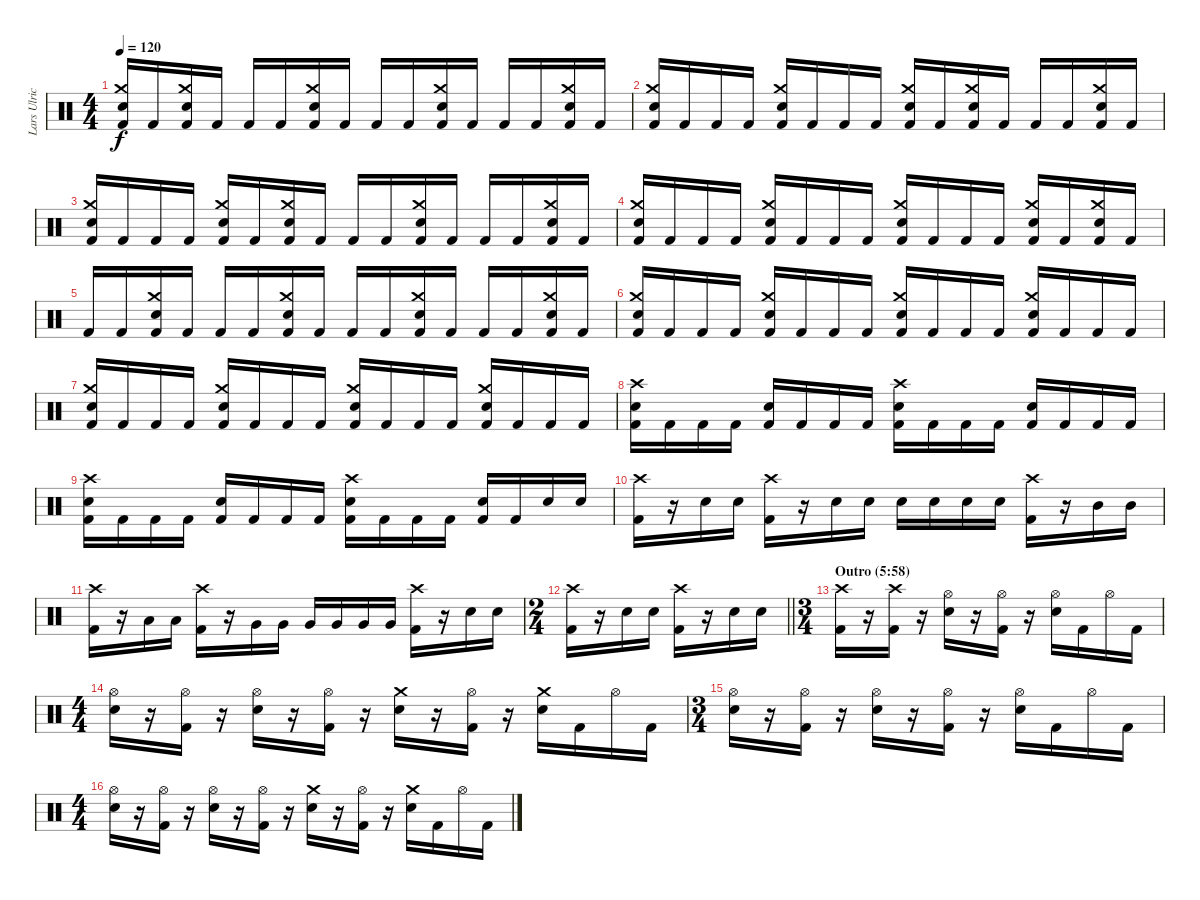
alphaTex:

\track ("Lars Ulrich" "Lars Ulric") {instrument percussion}
\staff {score}
\articulation defaults
\ts (4 4)
\tempo 120
\clef neutral
\ks c
("Electric Snare (hit)" "Crash medium (hit)" "Kick (hit) 2").16{dy f} "Kick (hit) 2".16 ("Electric Snare (hit)" "Crash medium (hit)" "Kick (hit) 2").16 "Kick (hit) 2".16 "Kick (hit) 2".16 "Kick (hit) 2".16 ("Electric Snare (hit)" "Crash medium (hit)" "Kick (hit) 2").16 "Kick (hit) 2".16 "Kick (hit) 2".16 "Kick (hit) 2".16 ("Electric Snare (hit)" "Crash medium (hit)" "Kick (hit) 2").16 "Kick (hit) 2".16 "Kick (hit) 2".16 "Kick (hit) 2".16 ("Electric Snare (hit)" "Crash medium (hit)" "Kick (hit) 2").16 "Kick (hit) 2".16 |
("Electric Snare (hit)" "Crash medium (hit)" "Kick (hit) 2").16 "Kick (hit) 2".16 "Kick (hit) 2".16 "Kick (hit) 2".16 ("Electric Snare (hit)" "Crash medium (hit)" "Kick (hit) 2").16 "Kick (hit) 2".16 "Kick (hit) 2".16 "Kick (hit) 2".16 ("Electric Snare (hit)" "Crash medium (hit)" "Kick (hit) 2").16 "Kick (hit) 2".16 ("Electric Snare (hit)" "Crash medium (hit)" "Kick (hit) 2").16 "Kick (hit) 2".16 "Kick (hit) 2".16 "Kick (hit) 2".16 ("Electric Snare (hit)" "Crash medium (hit)" "Kick (hit) 2").16 "Kick (hit) 2".16 |
("Electric Snare (hit)" "Crash medium (hit)" "Kick (hit) 2").16 "Kick (hit) 2".16 "Kick (hit) 2".16 "Kick (hit) 2".16 ("Electric Snare (hit)" "Crash medium (hit)" "Kick (hit) 2").16 "Kick (hit) 2".16 ("Electric Snare (hit)" "Crash medium (hit)" "Kick (hit) 2").16 "Kick (hit) 2".16 "Kick (hit) 2".16 "Kick (hit) 2".16 ("Electric Snare (hit)" "Crash medium (hit)" "Kick (hit) 2").16 "Kick (hit) 2".16 "Kick (hit) 2".16 "Kick (hit) 2".16 ("Electric Snare (hit)" "Crash medium (hit)" "Kick (hit) 2").16 "Kick (hit) 2".16 |
("Electric Snare (hit)" "Crash medium (hit)" "Kick (hit) 2").16 "Kick (hit) 2".16 "Kick (hit) 2".16 "Kick (hit) 2".16 ("Electric Snare (hit)" "Crash medium (hit)" "Kick (hit) 2").16 "Kick (hit) 2".16 "Kick (hit) 2".16 "Kick (hit) 2".16 ("Electric Snare (hit)" "Crash medium (hit)" "Kick (hit) 2").16 "Kick (hit) 2".16 "Kick (hit) 2".16 "Kick (hit) 2".16 ("Electric Snare (hit)" "Crash medium (hit)" "Kick (hit) 2").16 "Kick (hit) 2".16 ("Electric Snare (hit)" "Crash medium (hit)" "Kick (hit) 2").16 "Kick (hit) 2".16 |
"Kick (hit) 2".16 "Kick (hit) 2".16 ("Electric Snare (hit)" "Crash medium (hit)" "Kick (hit) 2").16 "Kick (hit) 2".16 "Kick (hit) 2".16 "Kick (hit) 2".16 ("Electric Snare (hit)" "Crash medium (hit)" "Kick (hit) 2").16 "Kick (hit) 2".16 "Kick (hit) 2".16 "Kick (hit) 2".16 ("Electric Snare (hit)" "Crash medium (hit)" "Kick (hit) 2").16 "Kick (hit) 2".16 "Kick (hit) 2".16 "Kick (hit) 2".16 ("Electric Snare (hit)" "Crash medium (hit)" "Kick (hit) 2").16 "Kick (hit) 2".16 |
("Electric Snare (hit)" "Crash medium (hit)" "Kick (hit) 2").16 "Kick (hit) 2".16 "Kick (hit) 2".16 "Kick (hit) 2".16 ("Electric Snare (hit)" "Crash medium (hit)" "Kick (hit) 2").16 "Kick (hit) 2".16 "Kick (hit) 2".16 "Kick (hit) 2".16 ("Electric Snare (hit)" "Crash medium (hit)" "Kick (hit) 2").16 "Kick (hit) 2".16 "Kick (hit) 2".16 "Kick (hit) 2".16 ("Electric Snare (hit)" "Crash medium (hit)" "Kick (hit) 2").16 "Kick (hit) 2".16 "Kick (hit) 2".16 "Kick (hit) 2".16 |
("Electric Snare (hit)" "Crash medium (hit)" "Kick (hit) 2").16 "Kick (hit) 2".16 "Kick (hit) 2".16 "Kick (hit) 2".16 ("Electric Snare (hit)" "Crash medium (hit)" "Kick (hit) 2").16 "Kick (hit) 2".16 "Kick (hit) 2".16 "Kick (hit) 2".16 ("Electric Snare (hit)" "Crash medium (hit)" "Kick (hit) 2").16 "Kick (hit) 2".16 "Kick (hit) 2".16 "Kick (hit) 2".16 ("Electric Snare (hit)" "Crash medium (hit)" "Kick (hit) 2").16 "Kick (hit) 2".16 "Kick (hit) 2".16 "Kick (hit) 2".16 |
("Crash high (hit)" "Electric Snare (hit)" "Kick (hit) 2").16 "Kick (hit) 2".16 "Kick (hit) 2".16 "Kick (hit) 2".16 ("Electric Snare (hit)" "Kick (hit) 2").16 "Kick (hit) 2".16 "Kick (hit) 2".16 "Kick (hit) 2".16 ("Crash high (hit)" "Electric Snare (hit)" "Kick (hit) 2").16 "Kick (hit) 2".16 "Kick (hit) 2".16 "Kick (hit) 2".16 ("Electric Snare (hit)" "Kick (hit) 2").16 "Kick (hit) 2".16 "Kick (hit) 2".16 "Kick (hit) 2".16 |
("Crash high (hit)" "Electric Snare (hit)" "Kick (hit) 2").16 "Kick (hit) 2".16 "Kick (hit) 2".16 "Kick (hit) 2".16 ("Electric Snare (hit)" "Kick (hit) 2").16 "Kick (hit) 2".16 "Kick (hit) 2".16 "Kick (hit) 2".16 ("Crash high (hit)" "Electric Snare (hit)" "Kick (hit) 2").16 "Kick (hit) 2".16 "Kick (hit) 2".16 "Kick (hit) 2".16 ("Electric Snare (hit)" "Kick (hit) 2").16 "Kick (hit) 2".16 "Electric Snare (hit)".16 "Electric Snare (hit)".16 |
("Crash high (hit)" "Kick (hit) 2").16 r.16 "Electric Snare (hit)".16 "Electric Snare (hit)".16 ("Crash high (hit)" "Kick (hit) 2").16 r.16 "Electric Snare (hit)".16 "Electric Snare (hit)".16 "Electric Snare (hit)".16 "Electric Snare (hit)".16 "Electric Snare (hit)".16 "Electric Snare (hit)".16 ("Crash high (hit)" "Kick (hit) 2").16 r.16 "Mid Tom (hit)".16 "Mid Tom (hit)".16 |
("Crash high (hit)" "Kick (hit) 2").16 r.16 "Low Tom (hit)".16 "Low Tom (hit)".16 ("Crash high (hit)" "Kick (hit) 2").16 r.16 "Very Low Tom (hit)".16 "Very Low Tom (hit)".16 "Very Low Tom (hit)".16 "Very Low Tom (hit)".16 "Very Low Tom (hit)".16 "Very Low Tom (hit)".16 ("Crash high (hit)" "Kick (hit) 2").16 r.16 "Electric Snare (hit)".16 "Electric Snare (hit)".16 |
\ts (2 4)
\barLineRight lightlight
("Crash high (hit)" "Kick (hit) 2").16 r.16 "Electric Snare (hit)".16 "Electric Snare (hit)".16 ("Crash high (hit)" "Kick (hit) 2").16 r.16 "Electric Snare (hit)".16 "Electric Snare (hit)".16 |
\ts (3 4)
\section ("" "Outro (5:58)")
("Crash high (hit)" "Kick (hit) 2").16 r.16 ("Crash high (hit)" "Kick (hit) 2").16 r.16 ("Electric Snare (hit)" "Hi-Hat (open)").16 r.16 ("Hi-Hat (open)" "Kick (hit) 2").16 r.16 ("Electric Snare (hit)" "Hi-Hat (open)").16 "Kick (hit) 2".16 "Hi-Hat (open)".16 "Kick (hit) 2".16 |
\ts (4 4)
("Electric Snare (hit)" "Hi-Hat (open)").16 r.16 ("Hi-Hat (open)" "Kick (hit) 2").16 r.16 ("Electric Snare (hit)" "Hi-Hat (open)").16 r.16 ("Hi-Hat (open)" "Kick (hit) 2").16 r.16 ("Electric Snare (hit)" "Crash medium (hit)").16 r.16 ("Hi-Hat (open)" "Kick (hit) 2").16 r.16 ("Electric Snare (hit)" "Crash medium (hit)").16 "Kick (hit) 2".16 "Hi-Hat (open)".16 "Kick (hit) 2".16 |
\ts (3 4)
("Electric Snare (hit)" "Hi-Hat (open)").16 r.16 ("Hi-Hat (open)" "Kick (hit) 2").16 r.16 ("Electric Snare (hit)" "Hi-Hat (open)").16 r.16 ("Hi-Hat (open)" "Kick (hit) 2").16 r.16 ("Electric Snare (hit)" "Hi-Hat (open)").16 "Kick (hit) 2".16 "Hi-Hat (open)".16 "Kick (hit) 2".16 |
\ts (4 4)
("Electric Snare (hit)" "Hi-Hat (open)").16 r.16 ("Hi-Hat (open)" "Kick (hit) 2").16 r.16 ("Electric Snare (hit)" "Hi-Hat (open)").16 r.16 ("Hi-Hat (open)" "Kick (hit) 2").16 r.16 ("Electric Snare (hit)" "Crash medium (hit)").16 r.16 ("Hi-Hat (open)" "Kick (hit) 2").16 r.16 ("Electric Snare (hit)" "Crash medium (hit)").16 "Kick (hit) 2".16 "Hi-Hat (open)".16 "Kick (hit) 2".16
